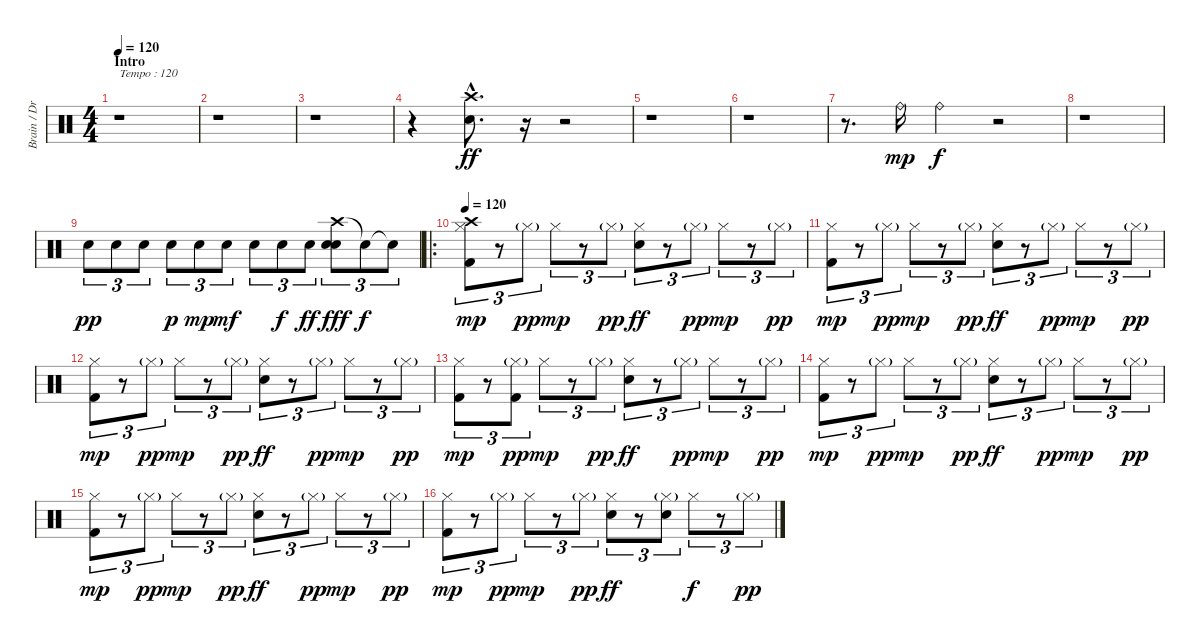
\track ("Brain / Drums" "Brain / Dr") {instrument percussion}
\staff {score}
\articulation defaults
\ts (4 4)
\section ("" "Intro")
\tempo 120
\clef neutral
\ks c
r.1{txt "Tempo : 120" dy ff} |
r.1 |
r.1 |
r.4 ("Crash high (hit)"{hac} "Electric Snare (hit)"{hac}).8{d} r.16 r.2 |
r.1 |
r.1 |
r.8{d} "Ride (bell)".16{dy mp} "Ride (bell)".4{dy f} r.2 |
r.1 |
"Electric Snare (hit)".8{tu (3 2) dy pp} "Electric Snare (hit)".8{tu (3 2)} "Electric Snare (hit)".8{tu (3 2)} "Electric Snare (hit)".8{tu (3 2) dy p} "Electric Snare (hit)".8{tu (3 2) dy mp} "Electric Snare (hit)".8{tu (3 2) dy mf} "Electric Snare (hit)".8{tu (3 2)} "Electric Snare (hit)".8{tu (3 2) dy f} "Electric Snare (hit)".8{tu (3 2) dy ff} ("Crash high (hit)" "Electric Snare (hit)" "Electric Snare (hit)").8{tu (3 2) dy fff} "Snare (hit)"{t}.8{tu (3 2) dy f} "Snare (hit)"{t}.8{tu (3 2)} |
\ro
\tempo 120
("Crash high (hit)" "Hi-Hat (closed)" "Kick (hit) 2").8{tu (3 2) dy mp} r.8{tu (3 2)} "Hi-Hat (closed)"{g}.8{tu (3 2) dy pp} "Hi-Hat (closed)".8{tu (3 2) dy mp} r.8{tu (3 2)} "Hi-Hat (closed)"{g}.8{tu (3 2) dy pp} ("Hi-Hat (closed)" "Electric Snare (hit)").8{tu (3 2) dy ff} r.8{tu (3 2)} "Hi-Hat (closed)"{g}.8{tu (3 2) dy pp} "Hi-Hat (closed)".8{tu (3 2) dy mp} r.8{tu (3 2)} "Hi-Hat (closed)"{g}.8{tu (3 2) dy pp} |
("Hi-Hat (closed)" "Kick (hit) 2").8{tu (3 2) dy mp} r.8{tu (3 2)} "Hi-Hat (closed)"{g}.8{tu (3 2) dy pp} "Hi-Hat (closed)".8{tu (3 2) dy mp} r.8{tu (3 2)} "Hi-Hat (closed)"{g}.8{tu (3 2) dy pp} ("Hi-Hat (closed)" "Electric Snare (hit)").8{tu (3 2) dy ff} r.8{tu (3 2)} "Hi-Hat (closed)"{g}.8{tu (3 2) dy pp} "Hi-Hat (closed)".8{tu (3 2) dy mp} r.8{tu (3 2)} "Hi-Hat (closed)"{g}.8{tu (3 2) dy pp} |
("Hi-Hat (closed)" "Kick (hit) 2").8{tu (3 2) dy mp} r.8{tu (3 2)} "Hi-Hat (closed)"{g}.8{tu (3 2) dy pp} "Hi-Hat (closed)".8{tu (3 2) dy mp} r.8{tu (3 2)} "Hi-Hat (closed)"{g}.8{tu (3 2) dy pp} ("Hi-Hat (closed)" "Electric Snare (hit)").8{tu (3 2) dy ff} r.8{tu (3 2)} "Hi-Hat (closed)"{g}.8{tu (3 2) dy pp} "Hi-Hat (closed)".8{tu (3 2) dy mp} r.8{tu (3 2)} "Hi-Hat (closed)"{g}.8{tu (3 2) dy pp} |
("Hi-Hat (closed)" "Kick (hit) 2").8{tu (3 2) dy mp} r.8{tu (3 2)} ("Hi-Hat (closed)"{g} "Kick (hit) 2").8{tu (3 2) dy pp} "Hi-Hat (closed)".8{tu (3 2) dy mp} r.8{tu (3 2)} "Hi-Hat (closed)"{g}.8{tu (3 2) dy pp} ("Hi-Hat (closed)" "Electric Snare (hit)").8{tu (3 2) dy ff} r.8{tu (3 2)} "Hi-Hat (closed)"{g}.8{tu (3 2) dy pp} "Hi-Hat (closed)".8{tu (3 2) dy mp} r.8{tu (3 2)} "Hi-Hat (closed)"{g}.8{tu (3 2) dy pp} |
("Hi-Hat (closed)" "Kick (hit) 2").8{tu (3 2) dy mp} r.8{tu (3 2)} "Hi-Hat (closed)"{g}.8{tu (3 2) dy pp} "Hi-Hat (closed)".8{tu (3 2) dy mp} r.8{tu (3 2)} "Hi-Hat (closed)"{g}.8{tu (3 2) dy pp} ("Hi-Hat (closed)" "Electric Snare (hit)").8{tu (3 2) dy ff} r.8{tu (3 2)} "Hi-Hat (closed)"{g}.8{tu (3 2) dy pp} "Hi-Hat (closed)".8{tu (3 2) dy mp} r.8{tu (3 2)} "Hi-Hat (closed)"{g}.8{tu (3 2) dy pp} |
("Hi-Hat (closed)" "Kick (hit) 2").8{tu (3 2) dy mp} r.8{tu (3 2)} "Hi-Hat (closed)"{g}.8{tu (3 2) dy pp} "Hi-Hat (closed)".8{tu (3 2) dy mp} r.8{tu (3 2)} "Hi-Hat (closed)"{g}.8{tu (3 2) dy pp} ("Hi-Hat (closed)" "Electric Snare (hit)").8{tu (3 2) dy ff} r.8{tu (3 2)} "Hi-Hat (closed)"{g}.8{tu (3 2) dy pp} "Hi-Hat (closed)".8{tu (3 2) dy mp} r.8{tu (3 2)} "Hi-Hat (closed)"{g}.8{tu (3 2) dy pp} |
("Hi-Hat (closed)" "Kick (hit) 2").8{tu (3 2) dy mp} r.8{tu (3 2)} "Hi-Hat (closed)"{g}.8{tu (3 2) dy pp} "Hi-Hat (closed)".8{tu (3 2) dy mp} r.8{tu (3 2)} "Hi-Hat (closed)"{g}.8{tu (3 2) dy pp} ("Hi-Hat (closed)" "Electric Snare (hit)").8{tu (3 2) dy ff} r.8{tu (3 2)} ("Hi-Hat (closed)"{g} "Electric Snare (hit)").8{tu (3 2)} "Hi-Hat (closed)".8{tu (3 2) dy f} r.8{tu (3 2)} "Hi-Hat (closed)"{g}.8{tu (3 2) dy pp}
